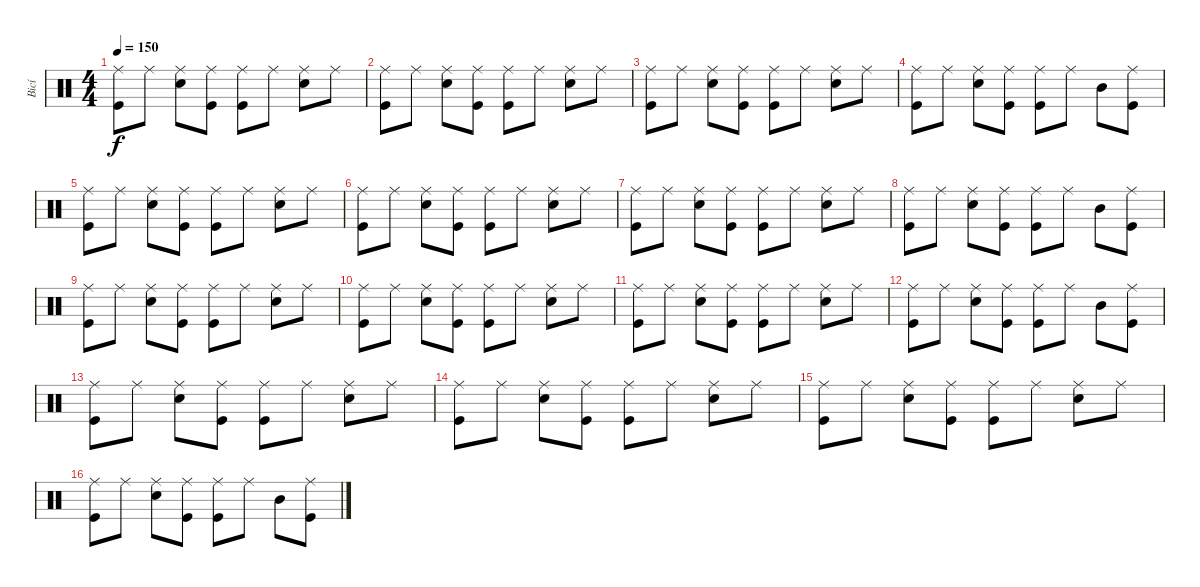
\track ("Bicí" "Bicí") {instrument percussion}
\staff {score}
\articulation defaults
\ts (4 4)
\tempo 150
\clef neutral
\ks c
("Ride (middle)" "Kick (hit)").8{dy f} "Ride (middle)".8 ("Ride (middle)" "Snare (hit) 2").8 ("Ride (middle)" "Kick (hit)").8 ("Ride (middle)" "Kick (hit)").8 "Ride (middle)".8 ("Ride (middle)" "Snare (hit) 2").8 "Ride (middle)".8 |
("Ride (middle)" "Kick (hit)").8 "Ride (middle)".8 ("Ride (middle)" "Snare (hit) 2").8 ("Ride (middle)" "Kick (hit)").8 ("Ride (middle)" "Kick (hit)").8 "Ride (middle)".8 ("Ride (middle)" "Snare (hit) 2").8 "Ride (middle)".8 |
("Ride (middle)" "Kick (hit)").8 "Ride (middle)".8 ("Ride (middle)" "Snare (hit) 2").8 ("Ride (middle)" "Kick (hit)").8 ("Ride (middle)" "Kick (hit)").8 "Ride (middle)".8 ("Ride (middle)" "Snare (hit) 2").8 "Ride (middle)".8 |
("Ride (middle)" "Kick (hit)").8 "Ride (middle)".8 ("Ride (middle)" "Snare (hit) 2").8 ("Ride (middle)" "Kick (hit)").8 ("Ride (middle)" "Kick (hit)").8 "Ride (middle)".8 "Mid Tom (hit)".8 ("Ride (middle)" "Kick (hit)").8 |
("Ride (middle)" "Kick (hit)").8 "Ride (middle)".8 ("Ride (middle)" "Snare (hit) 2").8 ("Ride (middle)" "Kick (hit)").8 ("Ride (middle)" "Kick (hit)").8 "Ride (middle)".8 ("Ride (middle)" "Snare (hit) 2").8 "Ride (middle)".8 |
("Ride (middle)" "Kick (hit)").8 "Ride (middle)".8 ("Ride (middle)" "Snare (hit) 2").8 ("Ride (middle)" "Kick (hit)").8 ("Ride (middle)" "Kick (hit)").8 "Ride (middle)".8 ("Ride (middle)" "Snare (hit) 2").8 "Ride (middle)".8 |
("Ride (middle)" "Kick (hit)").8 "Ride (middle)".8 ("Ride (middle)" "Snare (hit) 2").8 ("Ride (middle)" "Kick (hit)").8 ("Ride (middle)" "Kick (hit)").8 "Ride (middle)".8 ("Ride (middle)" "Snare (hit) 2").8 "Ride (middle)".8 |
("Ride (middle)" "Kick (hit)").8 "Ride (middle)".8 ("Ride (middle)" "Snare (hit) 2").8 ("Ride (middle)" "Kick (hit)").8 ("Ride (middle)" "Kick (hit)").8 "Ride (middle)".8 "Mid Tom (hit)".8 ("Ride (middle)" "Kick (hit)").8 |
("Ride (middle)" "Kick (hit)").8 "Ride (middle)".8 ("Ride (middle)" "Snare (hit) 2").8 ("Ride (middle)" "Kick (hit)").8 ("Ride (middle)" "Kick (hit)").8 "Ride (middle)".8 ("Ride (middle)" "Snare (hit) 2").8 "Ride (middle)".8 |
("Ride (middle)" "Kick (hit)").8 "Ride (middle)".8 ("Ride (middle)" "Snare (hit) 2").8 ("Ride (middle)" "Kick (hit)").8 ("Ride (middle)" "Kick (hit)").8 "Ride (middle)".8 ("Ride (middle)" "Snare (hit) 2").8 "Ride (middle)".8 |
("Ride (middle)" "Kick (hit)").8 "Ride (middle)".8 ("Ride (middle)" "Snare (hit) 2").8 ("Ride (middle)" "Kick (hit)").8 ("Ride (middle)" "Kick (hit)").8 "Ride (middle)".8 ("Ride (middle)" "Snare (hit) 2").8 "Ride (middle)".8 |
("Ride (middle)" "Kick (hit)").8 "Ride (middle)".8 ("Ride (middle)" "Snare (hit) 2").8 ("Ride (middle)" "Kick (hit)").8 ("Ride (middle)" "Kick (hit)").8 "Ride (middle)".8 "Mid Tom (hit)".8 ("Ride (middle)" "Kick (hit)").8 |
("Ride (middle)" "Kick (hit)").8 "Ride (middle)".8 ("Ride (middle)" "Snare (hit) 2").8 ("Ride (middle)" "Kick (hit)").8 ("Ride (middle)" "Kick (hit)").8 "Ride (middle)".8 ("Ride (middle)" "Snare (hit) 2").8 "Ride (middle)".8 |
("Ride (middle)" "Kick (hit)").8 "Ride (middle)".8 ("Ride (middle)" "Snare (hit) 2").8 ("Ride (middle)" "Kick (hit)").8 ("Ride (middle)" "Kick (hit)").8 "Ride (middle)".8 ("Ride (middle)" "Snare (hit) 2").8 "Ride (middle)".8 |
("Ride (middle)" "Kick (hit)").8 "Ride (middle)".8 ("Ride (middle)" "Snare (hit) 2").8 ("Ride (middle)" "Kick (hit)").8 ("Ride (middle)" "Kick (hit)").8 "Ride (middle)".8 ("Ride (middle)" "Snare (hit) 2").8 "Ride (middle)".8 |
("Ride (middle)" "Kick (hit)").8 "Ride (middle)".8 ("Ride (middle)" "Snare (hit) 2").8 ("Ride (middle)" "Kick (hit)").8 ("Ride (middle)" "Kick (hit)").8 "Ride (middle)".8 "Mid Tom (hit)".8 ("Ride (middle)" "Kick (hit)").8
